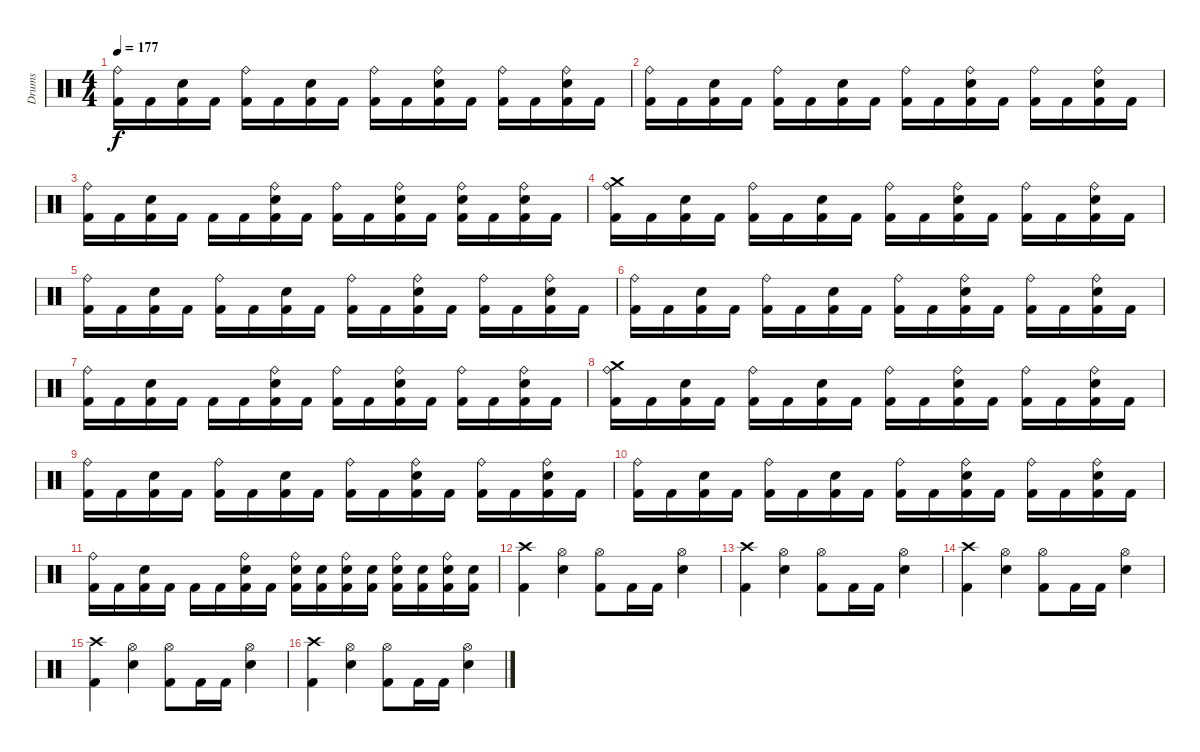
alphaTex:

\track ("Drums" "Drums") {instrument percussion}
\staff {score}
\articulation defaults
\ts (4 4)
\tempo 177
\clef neutral
\ks c
("Ride (bell)" "Kick (hit) 2").16{dy f} "Kick (hit) 2".16 ("Snare (hit) 2" "Kick (hit) 2").16 "Kick (hit) 2".16 ("Ride (bell)" "Kick (hit) 2").16 "Kick (hit) 2".16 ("Snare (hit) 2" "Kick (hit) 2").16 "Kick (hit) 2".16 ("Ride (bell)" "Kick (hit) 2").16 "Kick (hit) 2".16 ("Ride (bell)" "Snare (hit) 2" "Kick (hit) 2").16 "Kick (hit) 2".16 ("Ride (bell)" "Kick (hit) 2").16 "Kick (hit) 2".16 ("Ride (bell)" "Snare (hit) 2" "Kick (hit) 2").16 "Kick (hit) 2".16 |
("Ride (bell)" "Kick (hit) 2").16 "Kick (hit) 2".16 ("Snare (hit) 2" "Kick (hit) 2").16 "Kick (hit) 2".16 ("Ride (bell)" "Kick (hit) 2").16 "Kick (hit) 2".16 ("Snare (hit) 2" "Kick (hit) 2").16 "Kick (hit) 2".16 ("Ride (bell)" "Kick (hit) 2").16 "Kick (hit) 2".16 ("Ride (bell)" "Snare (hit) 2" "Kick (hit) 2").16 "Kick (hit) 2".16 ("Ride (bell)" "Kick (hit) 2").16 "Kick (hit) 2".16 ("Ride (bell)" "Snare (hit) 2" "Kick (hit) 2").16 "Kick (hit) 2".16 |
("Ride (bell)" "Kick (hit) 2").16 "Kick (hit) 2".16 ("Snare (hit) 2" "Kick (hit) 2").16 "Kick (hit) 2".16 "Kick (hit) 2".16 "Kick (hit) 2".16 ("Ride (bell)" "Snare (hit) 2" "Kick (hit) 2").16 "Kick (hit) 2".16 ("Ride (bell)" "Kick (hit) 2").16 "Kick (hit) 2".16 ("Ride (bell)" "Snare (hit) 2" "Kick (hit) 2").16 "Kick (hit) 2".16 ("Ride (bell)" "Snare (hit) 2" "Kick (hit) 2").16 "Kick (hit) 2".16 ("Ride (bell)" "Snare (hit) 2" "Kick (hit) 2").16 "Kick (hit) 2".16 |
("Crash medium (hit)" "Ride (bell)" "Kick (hit) 2").16 "Kick (hit) 2".16 ("Snare (hit) 2" "Kick (hit) 2").16 "Kick (hit) 2".16 ("Ride (bell)" "Kick (hit) 2").16 "Kick (hit) 2".16 ("Snare (hit) 2" "Kick (hit) 2").16 "Kick (hit) 2".16 ("Ride (bell)" "Kick (hit) 2").16 "Kick (hit) 2".16 ("Ride (bell)" "Snare (hit) 2" "Kick (hit) 2").16 "Kick (hit) 2".16 ("Ride (bell)" "Kick (hit) 2").16 "Kick (hit) 2".16 ("Ride (bell)" "Snare (hit) 2" "Kick (hit) 2").16 "Kick (hit) 2".16 |
("Ride (bell)" "Kick (hit) 2").16 "Kick (hit) 2".16 ("Snare (hit) 2" "Kick (hit) 2").16 "Kick (hit) 2".16 ("Ride (bell)" "Kick (hit) 2").16 "Kick (hit) 2".16 ("Snare (hit) 2" "Kick (hit) 2").16 "Kick (hit) 2".16 ("Ride (bell)" "Kick (hit) 2").16 "Kick (hit) 2".16 ("Ride (bell)" "Snare (hit) 2" "Kick (hit) 2").16 "Kick (hit) 2".16 ("Ride (bell)" "Kick (hit) 2").16 "Kick (hit) 2".16 ("Ride (bell)" "Snare (hit) 2" "Kick (hit) 2").16 "Kick (hit) 2".16 |
("Ride (bell)" "Kick (hit) 2").16 "Kick (hit) 2".16 ("Snare (hit) 2" "Kick (hit) 2").16 "Kick (hit) 2".16 ("Ride (bell)" "Kick (hit) 2").16 "Kick (hit) 2".16 ("Snare (hit) 2" "Kick (hit) 2").16 "Kick (hit) 2".16 ("Ride (bell)" "Kick (hit) 2").16 "Kick (hit) 2".16 ("Ride (bell)" "Snare (hit) 2" "Kick (hit) 2").16 "Kick (hit) 2".16 ("Ride (bell)" "Kick (hit) 2").16 "Kick (hit) 2".16 ("Ride (bell)" "Snare (hit) 2" "Kick (hit) 2").16 "Kick (hit) 2".16 |
("Ride (bell)" "Kick (hit) 2").16 "Kick (hit) 2".16 ("Snare (hit) 2" "Kick (hit) 2").16 "Kick (hit) 2".16 "Kick (hit) 2".16 "Kick (hit) 2".16 ("Ride (bell)" "Snare (hit) 2" "Kick (hit) 2").16 "Kick (hit) 2".16 ("Ride (bell)" "Kick (hit) 2").16 "Kick (hit) 2".16 ("Ride (bell)" "Snare (hit) 2" "Kick (hit) 2").16 "Kick (hit) 2".16 ("Ride (bell)" "Kick (hit) 2").16 "Kick (hit) 2".16 ("Ride (bell)" "Snare (hit) 2" "Kick (hit) 2").16 "Kick (hit) 2".16 |
("Ride (bell)" "Crash medium (hit)" "Kick (hit) 2").16 "Kick (hit) 2".16 ("Snare (hit) 2" "Kick (hit) 2").16 "Kick (hit) 2".16 ("Ride (bell)" "Kick (hit) 2").16 "Kick (hit) 2".16 ("Snare (hit) 2" "Kick (hit) 2").16 "Kick (hit) 2".16 ("Ride (bell)" "Kick (hit) 2").16 "Kick (hit) 2".16 ("Ride (bell)" "Snare (hit) 2" "Kick (hit) 2").16 "Kick (hit) 2".16 ("Ride (bell)" "Kick (hit) 2").16 "Kick (hit) 2".16 ("Ride (bell)" "Snare (hit) 2" "Kick (hit) 2").16 "Kick (hit) 2".16 |
("Ride (bell)" "Kick (hit) 2").16 "Kick (hit) 2".16 ("Snare (hit) 2" "Kick (hit) 2").16 "Kick (hit) 2".16 ("Ride (bell)" "Kick (hit) 2").16 "Kick (hit) 2".16 ("Snare (hit) 2" "Kick (hit) 2").16 "Kick (hit) 2".16 ("Ride (bell)" "Kick (hit) 2").16 "Kick (hit) 2".16 ("Ride (bell)" "Snare (hit) 2" "Kick (hit) 2").16 "Kick (hit) 2".16 ("Ride (bell)" "Kick (hit) 2").16 "Kick (hit) 2".16 ("Ride (bell)" "Snare (hit) 2" "Kick (hit) 2").16 "Kick (hit) 2".16 |
("Ride (bell)" "Kick (hit) 2").16 "Kick (hit) 2".16 ("Snare (hit) 2" "Kick (hit) 2").16 "Kick (hit) 2".16 ("Ride (bell)" "Kick (hit) 2").16 "Kick (hit) 2".16 ("Snare (hit) 2" "Kick (hit) 2").16 "Kick (hit) 2".16 ("Ride (bell)" "Kick (hit) 2").16 "Kick (hit) 2".16 ("Ride (bell)" "Snare (hit) 2" "Kick (hit) 2").16 "Kick (hit) 2".16 ("Ride (bell)" "Kick (hit) 2").16 "Kick (hit) 2".16 ("Ride (bell)" "Snare (hit) 2" "Kick (hit) 2").16 "Kick (hit) 2".16 |
("Ride (bell)" "Kick (hit) 2").16 "Kick (hit) 2".16 ("Snare (hit) 2" "Kick (hit) 2").16 "Kick (hit) 2".16 "Kick (hit) 2".16 "Kick (hit) 2".16 ("Ride (bell)" "Snare (hit) 2" "Kick (hit) 2").16 "Kick (hit) 2".16 ("Ride (bell)" "Snare (hit) 2" "Kick (hit) 2").16 ("Snare (hit) 2" "Kick (hit) 2").16 ("Ride (bell)" "Snare (hit) 2" "Kick (hit) 2").16 ("Snare (hit) 2" "Kick (hit) 2").16 ("Ride (bell)" "Snare (hit) 2" "Kick (hit) 2").16 ("Snare (hit) 2" "Kick (hit) 2").16 ("Ride (bell)" "Snare (hit) 2" "Kick (hit) 2").16 ("Snare (hit) 2" "Kick (hit) 2").16 |
("Kick (hit) 2" "Crash high (hit)").4 ("Snare (hit) 2" "Hi-Hat (open)").4 ("Kick (hit) 2" "Hi-Hat (open)").8 "Kick (hit) 2".16 "Kick (hit) 2".16 ("Snare (hit) 2" "Hi-Hat (open)").4 |
("Kick (hit) 2" "Crash high (hit)").4 ("Snare (hit) 2" "Hi-Hat (open)").4 ("Kick (hit) 2" "Hi-Hat (open)").8 "Kick (hit) 2".16 "Kick (hit) 2".16 ("Snare (hit) 2" "Hi-Hat (open)").4 |
("Kick (hit) 2" "Crash high (hit)").4 ("Snare (hit) 2" "Hi-Hat (open)").4 ("Kick (hit) 2" "Hi-Hat (open)").8 "Kick (hit) 2".16 "Kick (hit) 2".16 ("Snare (hit) 2" "Hi-Hat (open)").4 |
("Kick (hit) 2" "Crash high (hit)").4 ("Snare (hit) 2" "Hi-Hat (open)").4 ("Kick (hit) 2" "Hi-Hat (open)").8 "Kick (hit) 2".16 "Kick (hit) 2".16 ("Snare (hit) 2" "Hi-Hat (open)").4 |
("Kick (hit) 2" "Crash high (hit)").4 ("Snare (hit) 2" "Hi-Hat (open)").4 ("Kick (hit) 2" "Hi-Hat (open)").8 "Kick (hit) 2".16 "Kick (hit) 2".16 ("Snare (hit) 2" "Hi-Hat (open)").4
